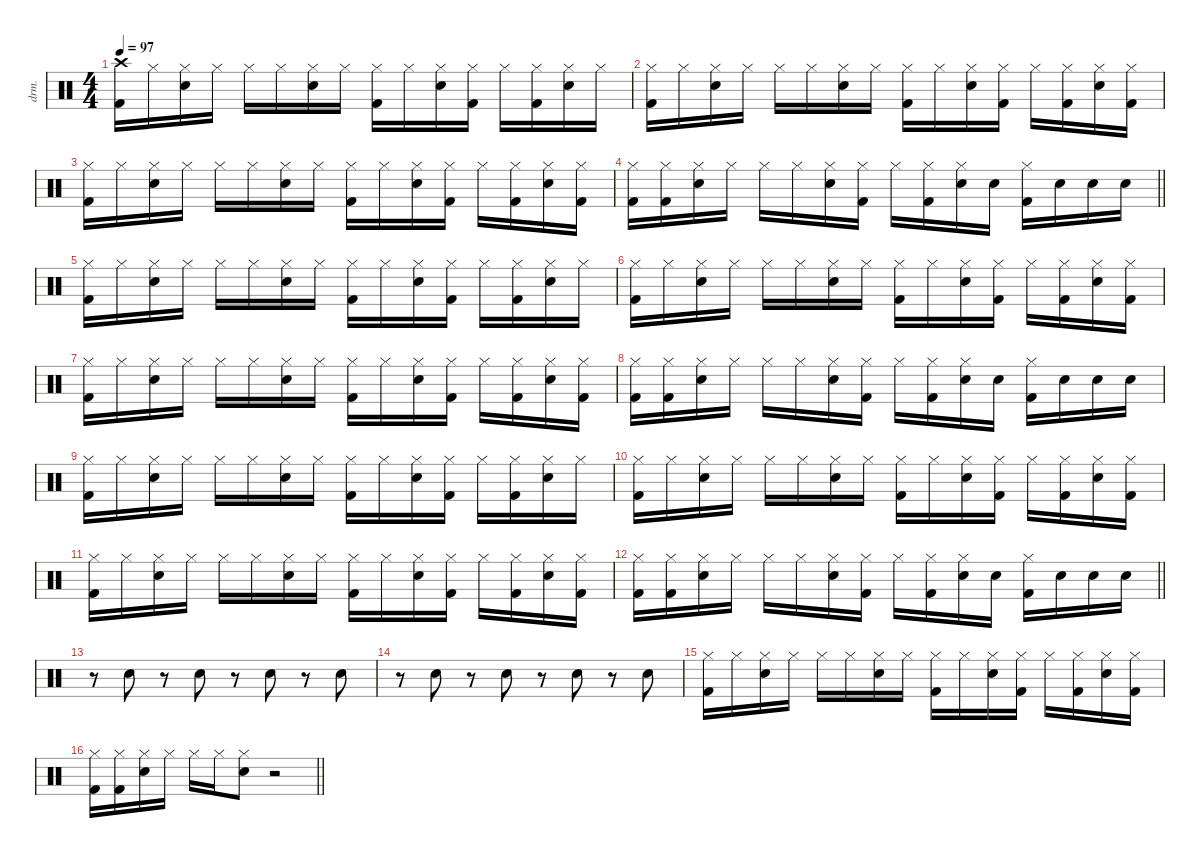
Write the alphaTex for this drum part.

\defaultSystemsLayout 4
\hideDynamics
\bracketExtendMode nobrackets
\track ("Drumkit" "drm.") {instrument percussion}
\staff {score}
\articulation defaults
\ts (4 4)
\tempo 97
\clef neutral
\ks c
("Kick (hit) 2" "Crash high (hit)").16{dy mf beam Down} "Hi-Hat (closed)".16{beam Down} ("Hi-Hat (closed)" "Snare (hit) 2").16{beam Down} "Hi-Hat (closed)".16{beam Down} "Hi-Hat (closed)".16{beam Down} "Hi-Hat (closed)".16{beam Down} ("Hi-Hat (closed)" "Snare (hit) 2").16{beam Down} "Hi-Hat (closed)".16{beam Down} ("Hi-Hat (closed)" "Kick (hit) 2").16{beam Down} "Hi-Hat (closed)".16{beam Down} ("Hi-Hat (closed)" "Snare (hit) 2").16{beam Down} ("Hi-Hat (closed)" "Kick (hit) 2").16{beam Down} "Hi-Hat (closed)".16{beam Down} ("Hi-Hat (closed)" "Kick (hit) 2").16{beam Down} ("Hi-Hat (closed)" "Snare (hit) 2").16{beam Down} "Hi-Hat (closed)".16{beam Down} |
("Hi-Hat (closed)" "Kick (hit) 2").16{beam Down} "Hi-Hat (closed)".16{beam Down} ("Hi-Hat (closed)" "Snare (hit) 2").16{beam Down} "Hi-Hat (closed)".16{beam Down} "Hi-Hat (closed)".16{beam Down} "Hi-Hat (closed)".16{beam Down} ("Hi-Hat (closed)" "Snare (hit) 2").16{beam Down} "Hi-Hat (closed)".16{beam Down} ("Hi-Hat (closed)" "Kick (hit) 2").16{beam Down} "Hi-Hat (closed)".16{beam Down} ("Hi-Hat (closed)" "Snare (hit) 2").16{beam Down} ("Hi-Hat (closed)" "Kick (hit) 2").16{beam Down} "Hi-Hat (closed)".16{beam Down} ("Hi-Hat (closed)" "Kick (hit) 2").16{beam Down} ("Hi-Hat (closed)" "Snare (hit) 2").16{beam Down} ("Hi-Hat (closed)" "Kick (hit) 2").16{beam Down} |
("Hi-Hat (closed)" "Kick (hit) 2").16{beam Down} "Hi-Hat (closed)".16{beam Down} ("Hi-Hat (closed)" "Snare (hit) 2").16{beam Down} "Hi-Hat (closed)".16{beam Down} "Hi-Hat (closed)".16{beam Down} "Hi-Hat (closed)".16{beam Down} ("Hi-Hat (closed)" "Snare (hit) 2").16{beam Down} "Hi-Hat (closed)".16{beam Down} ("Hi-Hat (closed)" "Kick (hit) 2").16{beam Down} "Hi-Hat (closed)".16{beam Down} ("Hi-Hat (closed)" "Snare (hit) 2").16{beam Down} ("Hi-Hat (closed)" "Kick (hit) 2").16{beam Down} "Hi-Hat (closed)".16{beam Down} ("Hi-Hat (closed)" "Kick (hit) 2").16{beam Down} ("Hi-Hat (closed)" "Snare (hit) 2").16{beam Down} ("Hi-Hat (closed)" "Kick (hit) 2").16{beam Down} |
\barLineRight lightlight
("Hi-Hat (closed)" "Kick (hit) 2").16{beam Down} ("Hi-Hat (closed)" "Kick (hit) 2").16{beam Down} ("Hi-Hat (closed)" "Snare (hit) 2").16{beam Down} "Hi-Hat (closed)".16{beam Down} "Hi-Hat (closed)".16{beam Down} "Hi-Hat (closed)".16{beam Down} ("Hi-Hat (closed)" "Snare (hit) 2").16{beam Down} ("Hi-Hat (closed)" "Kick (hit) 2").16{beam Down} "Hi-Hat (closed)".16{beam Down} ("Hi-Hat (closed)" "Kick (hit) 2").16{beam Down} ("Hi-Hat (closed)" "Snare (hit) 2").16{beam Down} "Snare (hit) 2".16{beam Down} ("Hi-Hat (closed)" "Kick (hit) 2").16{beam Down} "Snare (hit) 2".16{beam Down} "Snare (hit) 2".16{beam Down} "Snare (hit) 2".16{beam Down} |
("Hi-Hat (closed)" "Kick (hit) 2").16{beam Down} "Hi-Hat (closed)".16{beam Down} ("Hi-Hat (closed)" "Snare (hit) 2").16{beam Down} "Hi-Hat (closed)".16{beam Down} "Hi-Hat (closed)".16{beam Down} "Hi-Hat (closed)".16{beam Down} ("Hi-Hat (closed)" "Snare (hit) 2").16{beam Down} "Hi-Hat (closed)".16{beam Down} ("Hi-Hat (closed)" "Kick (hit) 2").16{beam Down} "Hi-Hat (closed)".16{beam Down} ("Hi-Hat (closed)" "Snare (hit) 2").16{beam Down} ("Hi-Hat (closed)" "Kick (hit) 2").16{beam Down} "Hi-Hat (closed)".16{beam Down} ("Hi-Hat (closed)" "Kick (hit) 2").16{beam Down} ("Hi-Hat (closed)" "Snare (hit) 2").16{beam Down} "Hi-Hat (closed)".16{beam Down} |
("Hi-Hat (closed)" "Kick (hit) 2").16{beam Down} "Hi-Hat (closed)".16{beam Down} ("Hi-Hat (closed)" "Snare (hit) 2").16{beam Down} "Hi-Hat (closed)".16{beam Down} "Hi-Hat (closed)".16{beam Down} "Hi-Hat (closed)".16{beam Down} ("Hi-Hat (closed)" "Snare (hit) 2").16{beam Down} "Hi-Hat (closed)".16{beam Down} ("Hi-Hat (closed)" "Kick (hit) 2").16{beam Down} "Hi-Hat (closed)".16{beam Down} ("Hi-Hat (closed)" "Snare (hit) 2").16{beam Down} ("Hi-Hat (closed)" "Kick (hit) 2").16{beam Down} "Hi-Hat (closed)".16{beam Down} ("Hi-Hat (closed)" "Kick (hit) 2").16{beam Down} ("Hi-Hat (closed)" "Snare (hit) 2").16{beam Down} ("Hi-Hat (closed)" "Kick (hit) 2").16{beam Down} |
("Hi-Hat (closed)" "Kick (hit) 2").16{beam Down} "Hi-Hat (closed)".16{beam Down} ("Hi-Hat (closed)" "Snare (hit) 2").16{beam Down} "Hi-Hat (closed)".16{beam Down} "Hi-Hat (closed)".16{beam Down} "Hi-Hat (closed)".16{beam Down} ("Hi-Hat (closed)" "Snare (hit) 2").16{beam Down} "Hi-Hat (closed)".16{beam Down} ("Hi-Hat (closed)" "Kick (hit) 2").16{beam Down} "Hi-Hat (closed)".16{beam Down} ("Hi-Hat (closed)" "Snare (hit) 2").16{beam Down} ("Hi-Hat (closed)" "Kick (hit) 2").16{beam Down} "Hi-Hat (closed)".16{beam Down} ("Hi-Hat (closed)" "Kick (hit) 2").16{beam Down} ("Hi-Hat (closed)" "Snare (hit) 2").16{beam Down} ("Hi-Hat (closed)" "Kick (hit) 2").16{beam Down} |
("Hi-Hat (closed)" "Kick (hit) 2").16{beam Down} ("Hi-Hat (closed)" "Kick (hit) 2").16{beam Down} ("Hi-Hat (closed)" "Snare (hit) 2").16{beam Down} "Hi-Hat (closed)".16{beam Down} "Hi-Hat (closed)".16{beam Down} "Hi-Hat (closed)".16{beam Down} ("Hi-Hat (closed)" "Snare (hit) 2").16{beam Down} ("Hi-Hat (closed)" "Kick (hit) 2").16{beam Down} "Hi-Hat (closed)".16{beam Down} ("Hi-Hat (closed)" "Kick (hit) 2").16{beam Down} ("Hi-Hat (closed)" "Snare (hit) 2").16{beam Down} "Snare (hit) 2".16{beam Down} ("Hi-Hat (closed)" "Kick (hit) 2").16{beam Down} "Snare (hit) 2".16{beam Down} "Snare (hit) 2".16{beam Down} "Snare (hit) 2".16{beam Down} |
("Hi-Hat (closed)" "Kick (hit) 2").16{beam Down} "Hi-Hat (closed)".16{beam Down} ("Hi-Hat (closed)" "Snare (hit) 2").16{beam Down} "Hi-Hat (closed)".16{beam Down} "Hi-Hat (closed)".16{beam Down} "Hi-Hat (closed)".16{beam Down} ("Hi-Hat (closed)" "Snare (hit) 2").16{beam Down} "Hi-Hat (closed)".16{beam Down} ("Hi-Hat (closed)" "Kick (hit) 2").16{beam Down} "Hi-Hat (closed)".16{beam Down} ("Hi-Hat (closed)" "Snare (hit) 2").16{beam Down} ("Hi-Hat (closed)" "Kick (hit) 2").16{beam Down} "Hi-Hat (closed)".16{beam Down} ("Hi-Hat (closed)" "Kick (hit) 2").16{beam Down} ("Hi-Hat (closed)" "Snare (hit) 2").16{beam Down} "Hi-Hat (closed)".16{beam Down} |
("Hi-Hat (closed)" "Kick (hit) 2").16{beam Down} "Hi-Hat (closed)".16{beam Down} ("Hi-Hat (closed)" "Snare (hit) 2").16{beam Down} "Hi-Hat (closed)".16{beam Down} "Hi-Hat (closed)".16{beam Down} "Hi-Hat (closed)".16{beam Down} ("Hi-Hat (closed)" "Snare (hit) 2").16{beam Down} "Hi-Hat (closed)".16{beam Down} ("Hi-Hat (closed)" "Kick (hit) 2").16{beam Down} "Hi-Hat (closed)".16{beam Down} ("Hi-Hat (closed)" "Snare (hit) 2").16{beam Down} ("Hi-Hat (closed)" "Kick (hit) 2").16{beam Down} "Hi-Hat (closed)".16{beam Down} ("Hi-Hat (closed)" "Kick (hit) 2").16{beam Down} ("Hi-Hat (closed)" "Snare (hit) 2").16{beam Down} ("Hi-Hat (closed)" "Kick (hit) 2").16{beam Down} |
("Hi-Hat (closed)" "Kick (hit) 2").16{beam Down} "Hi-Hat (closed)".16{beam Down} ("Hi-Hat (closed)" "Snare (hit) 2").16{beam Down} "Hi-Hat (closed)".16{beam Down} "Hi-Hat (closed)".16{beam Down} "Hi-Hat (closed)".16{beam Down} ("Hi-Hat (closed)" "Snare (hit) 2").16{beam Down} "Hi-Hat (closed)".16{beam Down} ("Hi-Hat (closed)" "Kick (hit) 2").16{beam Down} "Hi-Hat (closed)".16{beam Down} ("Hi-Hat (closed)" "Snare (hit) 2").16{beam Down} ("Hi-Hat (closed)" "Kick (hit) 2").16{beam Down} "Hi-Hat (closed)".16{beam Down} ("Hi-Hat (closed)" "Kick (hit) 2").16{beam Down} ("Hi-Hat (closed)" "Snare (hit) 2").16{beam Down} ("Hi-Hat (closed)" "Kick (hit) 2").16{beam Down} |
\barLineRight lightlight
("Hi-Hat (closed)" "Kick (hit) 2").16{beam Down} ("Hi-Hat (closed)" "Kick (hit) 2").16{beam Down} ("Hi-Hat (closed)" "Snare (hit) 2").16{beam Down} "Hi-Hat (closed)".16{beam Down} "Hi-Hat (closed)".16{beam Down} "Hi-Hat (closed)".16{beam Down} ("Hi-Hat (closed)" "Snare (hit) 2").16{beam Down} ("Hi-Hat (closed)" "Kick (hit) 2").16{beam Down} "Hi-Hat (closed)".16{beam Down} ("Hi-Hat (closed)" "Kick (hit) 2").16{beam Down} ("Hi-Hat (closed)" "Snare (hit) 2").16{beam Down} "Snare (hit) 2".16{beam Down} ("Hi-Hat (closed)" "Kick (hit) 2").16{beam Down} "Snare (hit) 2".16{beam Down} "Snare (hit) 2".16{beam Down} "Snare (hit) 2".16{beam Down} |
r.8{beam Down} "Snare (hit) 2".8{beam Down} r.8{beam Down} "Snare (hit) 2".8{beam Down} r.8{beam Down} "Snare (hit) 2".8{beam Down} r.8{beam Down} "Snare (hit) 2".8{beam Down} |
r.8{beam Down} "Snare (hit) 2".8{beam Down} r.8{beam Down} "Snare (hit) 2".8{beam Down} r.8{beam Down} "Snare (hit) 2".8{beam Down} r.8{beam Down} "Snare (hit) 2".8{beam Down} |
("Hi-Hat (closed)" "Kick (hit) 2").16{beam Down} "Hi-Hat (closed)".16{beam Down} ("Hi-Hat (closed)" "Snare (hit) 2").16{beam Down} "Hi-Hat (closed)".16{beam Down} "Hi-Hat (closed)".16{beam Down} "Hi-Hat (closed)".16{beam Down} ("Hi-Hat (closed)" "Snare (hit) 2").16{beam Down} "Hi-Hat (closed)".16{beam Down} ("Hi-Hat (closed)" "Kick (hit) 2").16{beam Down} "Hi-Hat (closed)".16{beam Down} ("Hi-Hat (closed)" "Snare (hit) 2").16{beam Down} ("Hi-Hat (closed)" "Kick (hit) 2").16{beam Down} "Hi-Hat (closed)".16{beam Down} ("Hi-Hat (closed)" "Kick (hit) 2").16{beam Down} ("Hi-Hat (closed)" "Snare (hit) 2").16{beam Down} ("Hi-Hat (closed)" "Kick (hit) 2").16{beam Down} |
\barLineRight lightlight
("Hi-Hat (closed)" "Kick (hit) 2").16{beam Down} ("Hi-Hat (closed)" "Kick (hit) 2").16{beam Down} ("Hi-Hat (closed)" "Snare (hit) 2").16{beam Down} "Hi-Hat (closed)".16{beam Down} "Hi-Hat (closed)".16{beam Down} "Hi-Hat (closed)".16{beam Down} ("Hi-Hat (closed)" "Snare (hit) 2").8{beam Down} r.2{beam Down}
